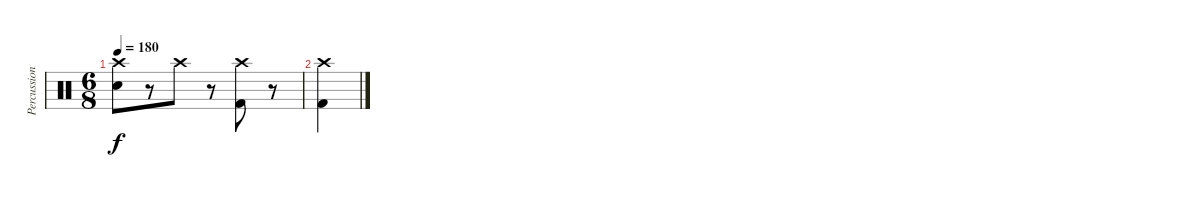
\track ("Percussion" "Percussion") {instrument percussion}
\staff {score}
\articulation defaults
\ts (6 8)
\tempo 180
\clef neutral
\ks c
("Crash high (hit)" "Electric Snare (hit)").8{dy f} r.8 "Crash high (hit)".8 r.8 ("Crash high (hit)" "Kick (hit) 2").8 r.8 |
("Crash high (hit)" "Kick (hit) 2").4
